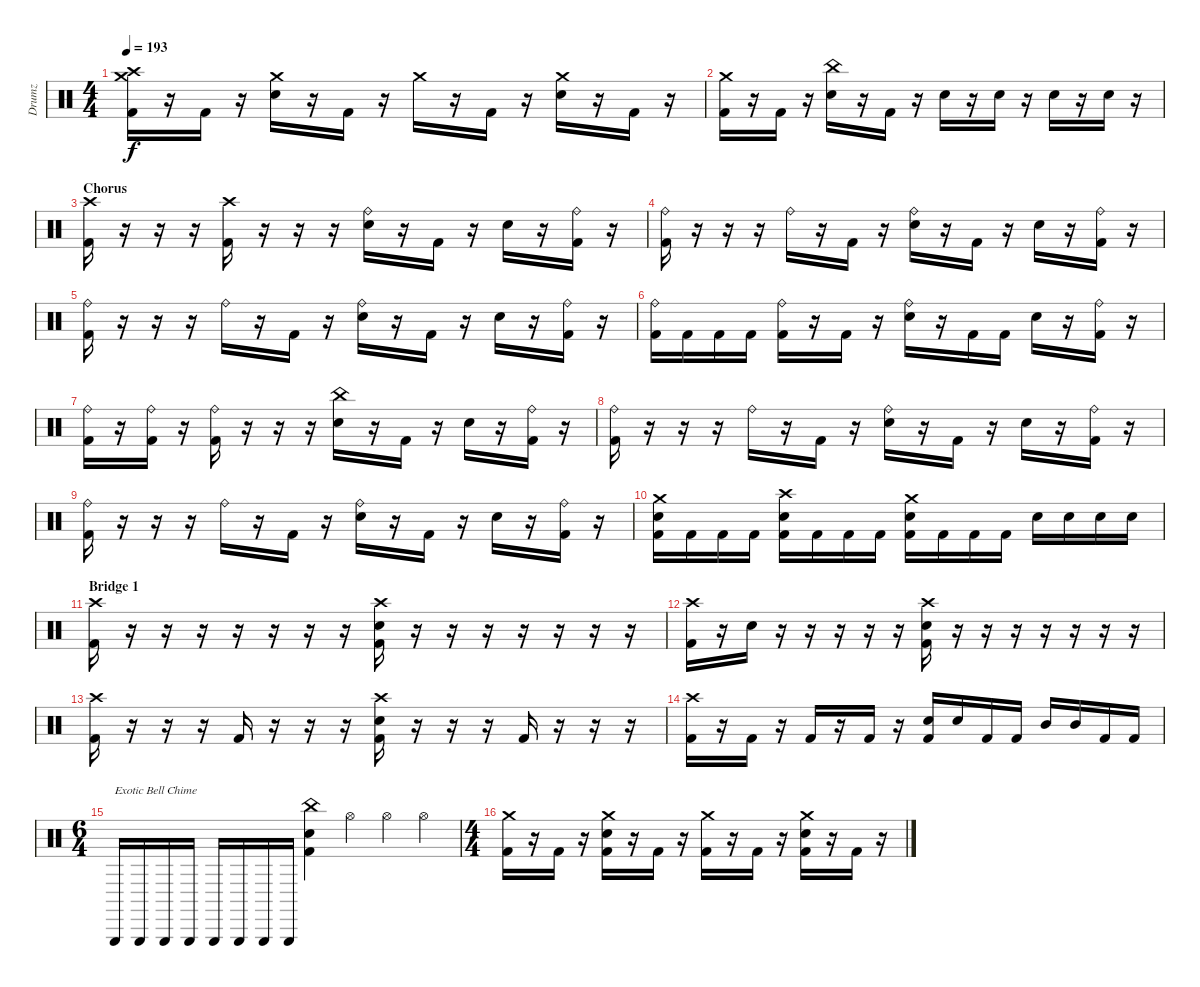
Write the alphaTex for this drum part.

\track ("Drumz" "Drumz") {instrument percussion}
\staff {score}
\articulation defaults
\ts (4 4)
\tempo 193
\clef neutral
\ks c
("Crash medium (hit)" "Crash high (hit)" "Kick (hit) 2").16{dy f} r.16 "Kick (hit) 2".16 r.16 ("Crash medium (hit)" "Electric Snare (hit)").16 r.16 "Kick (hit) 2".16 r.16 "Crash medium (hit)".16 r.16 "Kick (hit) 2".16 r.16 ("Crash medium (hit)" "Electric Snare (hit)").16 r.16 "Kick (hit) 2".16 r.16 |
("Crash medium (hit)" "Kick (hit) 2").16 r.16 "Kick (hit) 2".16 r.16 ("China (hit)" "Electric Snare (hit)").16 r.16 "Kick (hit) 2".16 r.16 "Electric Snare (hit)".16 r.16 "Electric Snare (hit)".16 r.16 "Electric Snare (hit)".16 r.16 "Electric Snare (hit)".16 r.16 |
\section ("" "Chorus")
("Crash high (hit)" "Kick (hit) 2").16 r.16 r.16 r.16 ("Crash high (hit)" "Kick (hit) 2").16 r.16 r.16 r.16 ("Ride (bell)" "Electric Snare (hit)").16 r.16 "Kick (hit) 2".16 r.16 "Electric Snare (hit)".16 r.16 ("Ride (bell)" "Kick (hit) 2").16 r.16 |
("Ride (bell)" "Kick (hit) 2").16 r.16 r.16 r.16 "Ride (bell)".16 r.16 "Kick (hit) 2".16 r.16 ("Ride (bell)" "Electric Snare (hit)").16 r.16 "Kick (hit) 2".16 r.16 "Electric Snare (hit)".16 r.16 ("Ride (bell)" "Kick (hit) 2").16 r.16 |
("Ride (bell)" "Kick (hit) 2").16 r.16 r.16 r.16 "Ride (bell)".16 r.16 "Kick (hit) 2".16 r.16 ("Ride (bell)" "Electric Snare (hit)").16 r.16 "Kick (hit) 2".16 r.16 "Electric Snare (hit)".16 r.16 ("Ride (bell)" "Kick (hit) 2").16 r.16 |
("Ride (bell)" "Kick (hit) 2").16 "Kick (hit) 2".16 "Kick (hit) 2".16 "Kick (hit) 2".16 ("Ride (bell)" "Kick (hit) 2").16 r.16 "Kick (hit) 2".16 r.16 ("Ride (bell)" "Electric Snare (hit)").16 r.16 "Kick (hit) 2".16 "Kick (hit) 2".16 "Electric Snare (hit)".16 r.16 ("Ride (bell)" "Kick (hit) 2").16 r.16 |
("Ride (bell)" "Kick (hit) 2").16 r.16 ("Ride (bell)" "Kick (hit) 2").16 r.16 ("Ride (bell)" "Kick (hit) 2").16 r.16 r.16 r.16 ("China (hit)" "Electric Snare (hit)").16 r.16 "Kick (hit) 2".16 r.16 "Electric Snare (hit)".16 r.16 ("Ride (bell)" "Kick (hit) 2").16 r.16 |
("Ride (bell)" "Kick (hit) 2").16 r.16 r.16 r.16 "Ride (bell)".16 r.16 "Kick (hit) 2".16 r.16 ("Ride (bell)" "Electric Snare (hit)").16 r.16 "Kick (hit) 2".16 r.16 "Electric Snare (hit)".16 r.16 ("Ride (bell)" "Kick (hit) 2").16 r.16 |
("Ride (bell)" "Kick (hit) 2").16 r.16 r.16 r.16 "Ride (bell)".16 r.16 "Kick (hit) 2".16 r.16 ("Ride (bell)" "Electric Snare (hit)").16 r.16 "Kick (hit) 2".16 r.16 "Electric Snare (hit)".16 r.16 ("Ride (bell)" "Kick (hit) 2").16 r.16 |
("Crash medium (hit)" "Electric Snare (hit)" "Kick (hit) 2").16 "Kick (hit) 2".16 "Kick (hit) 2".16 "Kick (hit) 2".16 ("Crash high (hit)" "Electric Snare (hit)" "Kick (hit) 2").16 "Kick (hit) 2".16 "Kick (hit) 2".16 "Kick (hit) 2".16 ("Crash medium (hit)" "Electric Snare (hit)" "Kick (hit) 2").16 "Kick (hit) 2".16 "Kick (hit) 2".16 "Kick (hit) 2".16 "Electric Snare (hit)".16 "Electric Snare (hit)".16 "Electric Snare (hit)".16 "Electric Snare (hit)".16 |
\section ("" "Bridge 1")
("Crash high (hit)" "Kick (hit) 2").16 r.16 r.16 r.16 r.16 r.16 r.16 r.16 ("Crash high (hit)" "Electric Snare (hit)" "Kick (hit) 2").16 r.16 r.16 r.16 r.16 r.16 r.16 r.16 |
("Crash high (hit)" "Kick (hit) 2").16 r.16 "Electric Snare (hit)".16 r.16 r.16 r.16 r.16 r.16 ("Crash high (hit)" "Electric Snare (hit)" "Kick (hit) 2").16 r.16 r.16 r.16 r.16 r.16 r.16 r.16 |
("Crash high (hit)" "Kick (hit) 2").16 r.16 r.16 r.16 "Kick (hit) 2".16 r.16 r.16 r.16 ("Crash high (hit)" "Electric Snare (hit)" "Kick (hit) 2").16 r.16 r.16 r.16 "Kick (hit) 2".16 r.16 r.16 r.16 |
("Crash high (hit)" "Kick (hit) 2").16 r.16 "Kick (hit) 2".16 r.16 "Kick (hit) 2".16 r.16 "Kick (hit) 2".16 r.16 ("Electric Snare (hit)" "Kick (hit) 2").16 "Electric Snare (hit)".16 "Kick (hit) 2".16 "Kick (hit) 2".16 "Mid Tom (hit)".16 "Mid Tom (hit)".16 "Kick (hit) 2".16 "Kick (hit) 2".16 |
\ts (6 4)
"Triangle (hit)".16{txt "Exotic Bell Chime"} "Triangle (hit)".16 "Triangle (hit)".16 "Triangle (hit)".16 "Triangle (hit)".16 "Triangle (hit)".16 "Triangle (hit)".16 "Triangle (hit)".16 ("China (hit)" "Electric Snare (hit)" "Kick (hit) 2").4 "Hi-Hat (open)".4 "Hi-Hat (open)".4 "Hi-Hat (open)".4 |
\ts (4 4)
("Crash medium (hit)" "Kick (hit) 2").16 r.16 "Kick (hit) 2".16 r.16 ("Crash medium (hit)" "Electric Snare (hit)" "Kick (hit) 2").16 r.16 "Kick (hit) 2".16 r.16 ("Crash medium (hit)" "Kick (hit) 2").16 r.16 "Kick (hit) 2".16 r.16 ("Crash medium (hit)" "Electric Snare (hit)" "Kick (hit) 2").16 r.16 "Kick (hit) 2".16 r.16
